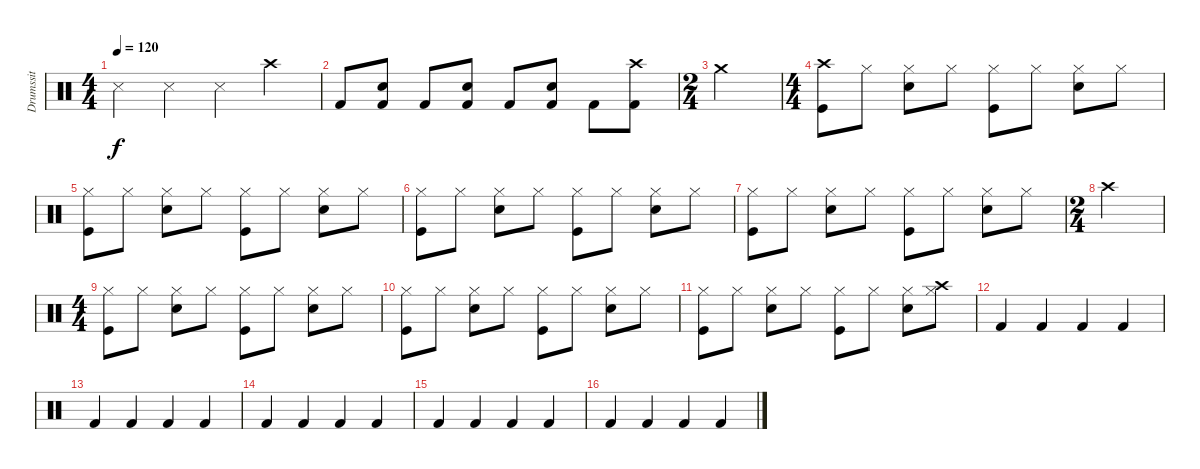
\track ("Drumssit" "Drumssit") {instrument percussion}
\staff {score}
\articulation defaults
\ts (4 4)
\tempo 120
\clef neutral
\ks c "Snare (side stick) 3".4{dy f} "Snare (side stick) 3".4 "Snare (side stick) 3".4 "Crash high (hit)".4
|
"Kick (hit) 2".8 ("Snare (hit) 2" "Kick (hit) 2").8 "Kick (hit) 2".8 ("Snare (hit) 2" "Kick (hit) 2").8 "Kick (hit) 2".8 ("Snare (hit) 2" "Kick (hit) 2").8 "Kick (hit) 2".8 ("Crash high (hit)" "Kick (hit) 2").8 |
\ts (2 4)
"Crash medium (hit)".2 |
\ts (4 4)
("Crash high (hit)" "Kick (hit)").8 "Hi-Hat (closed)".8 ("Hi-Hat (closed)" "Snare (hit) 2").8 "Hi-Hat (closed)".8 ("Hi-Hat (closed)" "Kick (hit)").8 "Hi-Hat (closed)".8 ("Hi-Hat (closed)" "Snare (hit) 2").8 "Hi-Hat (closed)".8 |
("Hi-Hat (closed)" "Kick (hit)").8 "Hi-Hat (closed)".8 ("Hi-Hat (closed)" "Snare (hit) 2").8 "Hi-Hat (closed)".8 ("Hi-Hat (closed)" "Kick (hit)").8 "Hi-Hat (closed)".8 ("Hi-Hat (closed)" "Snare (hit) 2").8 "Hi-Hat (closed)".8 |
("Hi-Hat (closed)" "Kick (hit)").8 "Hi-Hat (closed)".8 ("Hi-Hat (closed)" "Snare (hit) 2").8 "Hi-Hat (closed)".8 ("Hi-Hat (closed)" "Kick (hit)").8 "Hi-Hat (closed)".8 ("Hi-Hat (closed)" "Snare (hit) 2").8 "Hi-Hat (closed)".8 |
("Hi-Hat (closed)" "Kick (hit)").8 "Hi-Hat (closed)".8 ("Hi-Hat (closed)" "Snare (hit) 2").8 "Hi-Hat (closed)".8 ("Hi-Hat (closed)" "Kick (hit)").8 "Hi-Hat (closed)".8 ("Hi-Hat (closed)" "Snare (hit) 2").8 "Hi-Hat (closed)".8 |
\ts (2 4)
"Crash high (hit)".2 |
\ts (4 4)
("Hi-Hat (closed)" "Kick (hit)").8 "Hi-Hat (closed)".8 ("Hi-Hat (closed)" "Snare (hit) 2").8 "Hi-Hat (closed)".8 ("Hi-Hat (closed)" "Kick (hit)").8 "Hi-Hat (closed)".8 ("Hi-Hat (closed)" "Snare (hit) 2").8 "Hi-Hat (closed)".8 |
("Hi-Hat (closed)" "Kick (hit)").8 "Hi-Hat (closed)".8 ("Hi-Hat (closed)" "Snare (hit) 2").8 "Hi-Hat (closed)".8 ("Hi-Hat (closed)" "Kick (hit)").8 "Hi-Hat (closed)".8 ("Hi-Hat (closed)" "Snare (hit) 2").8 "Hi-Hat (closed)".8 |
("Hi-Hat (closed)" "Kick (hit)").8 "Hi-Hat (closed)".8 ("Hi-Hat (closed)" "Snare (hit) 2").8 "Hi-Hat (closed)".8 ("Hi-Hat (closed)" "Kick (hit)").8 "Hi-Hat (closed)".8 ("Hi-Hat (closed)" "Snare (hit) 2").8 ("Crash high (hit)" "Hi-Hat (closed)").8 |
"Kick (hit) 2".4 "Kick (hit) 2".4 "Kick (hit) 2".4 "Kick (hit) 2".4 |
"Kick (hit) 2".4 "Kick (hit) 2".4 "Kick (hit) 2".4 "Kick (hit) 2".4 |
"Kick (hit) 2".4 "Kick (hit) 2".4 "Kick (hit) 2".4 "Kick (hit) 2".4 |
"Kick (hit) 2".4 "Kick (hit) 2".4 "Kick (hit) 2".4 "Kick (hit) 2".4 |
"Kick (hit) 2".4 "Kick (hit) 2".4 "Kick (hit) 2".4 "Kick (hit) 2".4
